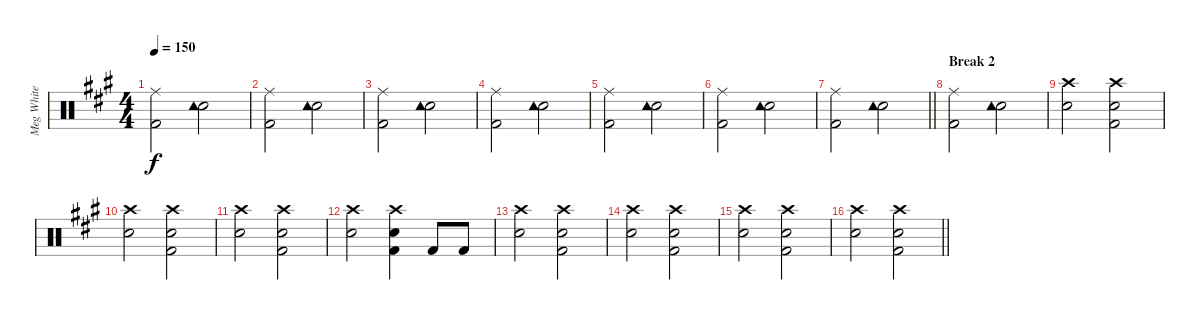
\track ("Meg White Drums" "Meg White ") {instrument percussion}
\staff {score}
\articulation defaults
\ts (4 4)
\tempo 150
\clef neutral
\ks a
("Ride (middle)" "Kick (hit) 2").2{dy f} ("Snare (hit) 2" "Tambourine (hit)").2 |
("Ride (middle)" "Kick (hit) 2").2 ("Snare (hit) 2" "Tambourine (hit)").2 |
("Ride (middle)" "Kick (hit) 2").2 ("Snare (hit) 2" "Tambourine (hit)").2 |
("Ride (middle)" "Kick (hit) 2").2 ("Snare (hit) 2" "Tambourine (hit)").2 |
("Ride (middle)" "Kick (hit) 2").2 ("Snare (hit) 2" "Tambourine (hit)").2 |
("Ride (middle)" "Kick (hit) 2").2 ("Snare (hit) 2" "Tambourine (hit)").2 |
\barLineRight lightlight
("Ride (middle)" "Kick (hit) 2").2 ("Snare (hit) 2" "Tambourine (hit)").2 |
\section ("" "Break 2")
("Ride (middle)" "Kick (hit) 2").2 ("Snare (hit) 2" "Tambourine (hit)").2 |
("Crash high (hit)" "Snare (hit) 2").2 ("Crash high (hit)" "Kick (hit) 2" "Snare (hit) 2").2 |
("Crash high (hit)" "Snare (hit) 2").2 ("Crash high (hit)" "Kick (hit) 2" "Snare (hit) 2").2 |
("Crash high (hit)" "Snare (hit) 2").2 ("Crash high (hit)" "Kick (hit) 2" "Snare (hit) 2").2 |
("Crash high (hit)" "Snare (hit) 2").2 ("Crash high (hit)" "Kick (hit) 2" "Snare (hit) 2").4 "Kick (hit) 2".8 "Kick (hit) 2".8 |
("Crash high (hit)" "Snare (hit) 2").2 ("Crash high (hit)" "Kick (hit) 2" "Snare (hit) 2").2 |
("Crash high (hit)" "Snare (hit) 2").2 ("Crash high (hit)" "Kick (hit) 2" "Snare (hit) 2").2 |
("Crash high (hit)" "Snare (hit) 2").2 ("Crash high (hit)" "Kick (hit) 2" "Snare (hit) 2").2 |
\barLineRight lightlight
("Crash high (hit)" "Snare (hit) 2").2 ("Crash high (hit)" "Kick (hit) 2" "Snare (hit) 2").2
